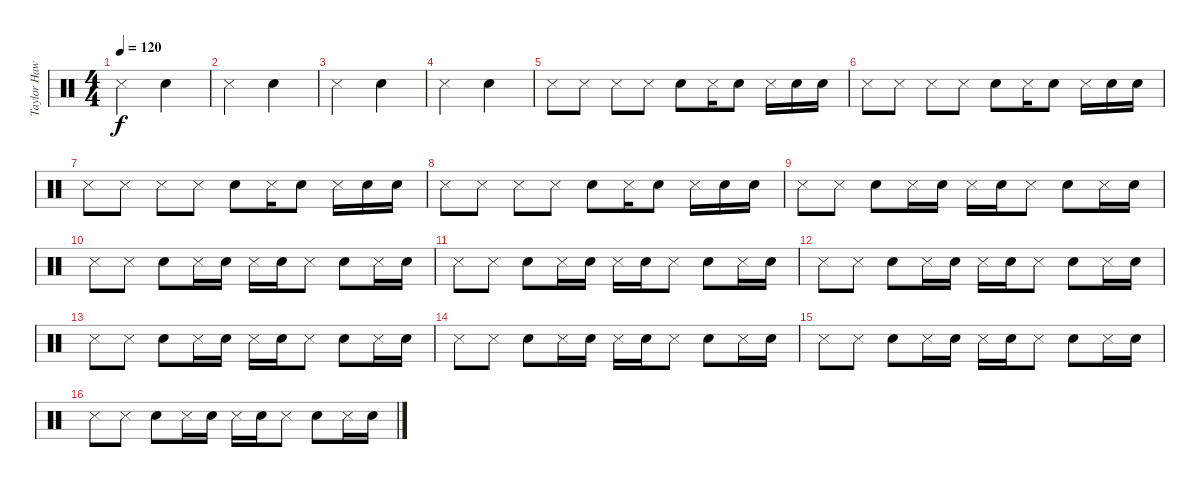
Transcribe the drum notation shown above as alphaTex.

\track ("Taylor Hawkins" "Taylor Haw") {instrument percussion}
\staff {score}
\articulation defaults
\ts (4 4)
\tempo 120
\clef neutral
\ks c "Metronome (hit)".2{dy f} "Metronome (bell)".2
|
"Metronome (hit)".2 "Metronome (bell)".2 |
"Metronome (hit)".2 "Metronome (bell)".2 |
"Metronome (hit)".2 "Metronome (bell)".2 |
"Metronome (hit)".8 "Metronome (hit)".8 "Metronome (hit)".8 "Metronome (hit)".8 "Metronome (bell)".8 "Metronome (hit)".16 "Metronome (bell)".8 "Metronome (hit)".16 "Metronome (bell)".16 "Metronome (bell)".16 |
"Metronome (hit)".8 "Metronome (hit)".8 "Metronome (hit)".8 "Metronome (hit)".8 "Metronome (bell)".8 "Metronome (hit)".16 "Metronome (bell)".8 "Metronome (hit)".16 "Metronome (bell)".16 "Metronome (bell)".16 |
"Metronome (hit)".8 "Metronome (hit)".8 "Metronome (hit)".8 "Metronome (hit)".8 "Metronome (bell)".8 "Metronome (hit)".16 "Metronome (bell)".8 "Metronome (hit)".16 "Metronome (bell)".16 "Metronome (bell)".16 |
"Metronome (hit)".8 "Metronome (hit)".8 "Metronome (hit)".8 "Metronome (hit)".8 "Metronome (bell)".8 "Metronome (hit)".16 "Metronome (bell)".8 "Metronome (hit)".16 "Metronome (bell)".16 "Metronome (bell)".16 |
"Metronome (hit)".8 "Metronome (hit)".8 "Metronome (bell)".8 "Metronome (hit)".16 "Metronome (bell)".16 "Metronome (hit)".16 "Metronome (bell)".16 "Metronome (hit)".8 "Metronome (bell)".8 "Metronome (hit)".16 "Metronome (bell)".16 |
"Metronome (hit)".8 "Metronome (hit)".8 "Metronome (bell)".8 "Metronome (hit)".16 "Metronome (bell)".16 "Metronome (hit)".16 "Metronome (bell)".16 "Metronome (hit)".8 "Metronome (bell)".8 "Metronome (hit)".16 "Metronome (bell)".16 |
"Metronome (hit)".8 "Metronome (hit)".8 "Metronome (bell)".8 "Metronome (hit)".16 "Metronome (bell)".16 "Metronome (hit)".16 "Metronome (bell)".16 "Metronome (hit)".8 "Metronome (bell)".8 "Metronome (hit)".16 "Metronome (bell)".16 |
"Metronome (hit)".8 "Metronome (hit)".8 "Metronome (bell)".8 "Metronome (hit)".16 "Metronome (bell)".16 "Metronome (hit)".16 "Metronome (bell)".16 "Metronome (hit)".8 "Metronome (bell)".8 "Metronome (hit)".16 "Metronome (bell)".16 |
"Metronome (hit)".8 "Metronome (hit)".8 "Metronome (bell)".8 "Metronome (hit)".16 "Metronome (bell)".16 "Metronome (hit)".16 "Metronome (bell)".16 "Metronome (hit)".8 "Metronome (bell)".8 "Metronome (hit)".16 "Metronome (bell)".16 |
"Metronome (hit)".8 "Metronome (hit)".8 "Metronome (bell)".8 "Metronome (hit)".16 "Metronome (bell)".16 "Metronome (hit)".16 "Metronome (bell)".16 "Metronome (hit)".8 "Metronome (bell)".8 "Metronome (hit)".16 "Metronome (bell)".16 |
"Metronome (hit)".8 "Metronome (hit)".8 "Metronome (bell)".8 "Metronome (hit)".16 "Metronome (bell)".16 "Metronome (hit)".16 "Metronome (bell)".16 "Metronome (hit)".8 "Metronome (bell)".8 "Metronome (hit)".16 "Metronome (bell)".16 |
"Metronome (hit)".8 "Metronome (hit)".8 "Metronome (bell)".8 "Metronome (hit)".16 "Metronome (bell)".16 "Metronome (hit)".16 "Metronome (bell)".16 "Metronome (hit)".8 "Metronome (bell)".8 "Metronome (hit)".16 "Metronome (bell)".16
